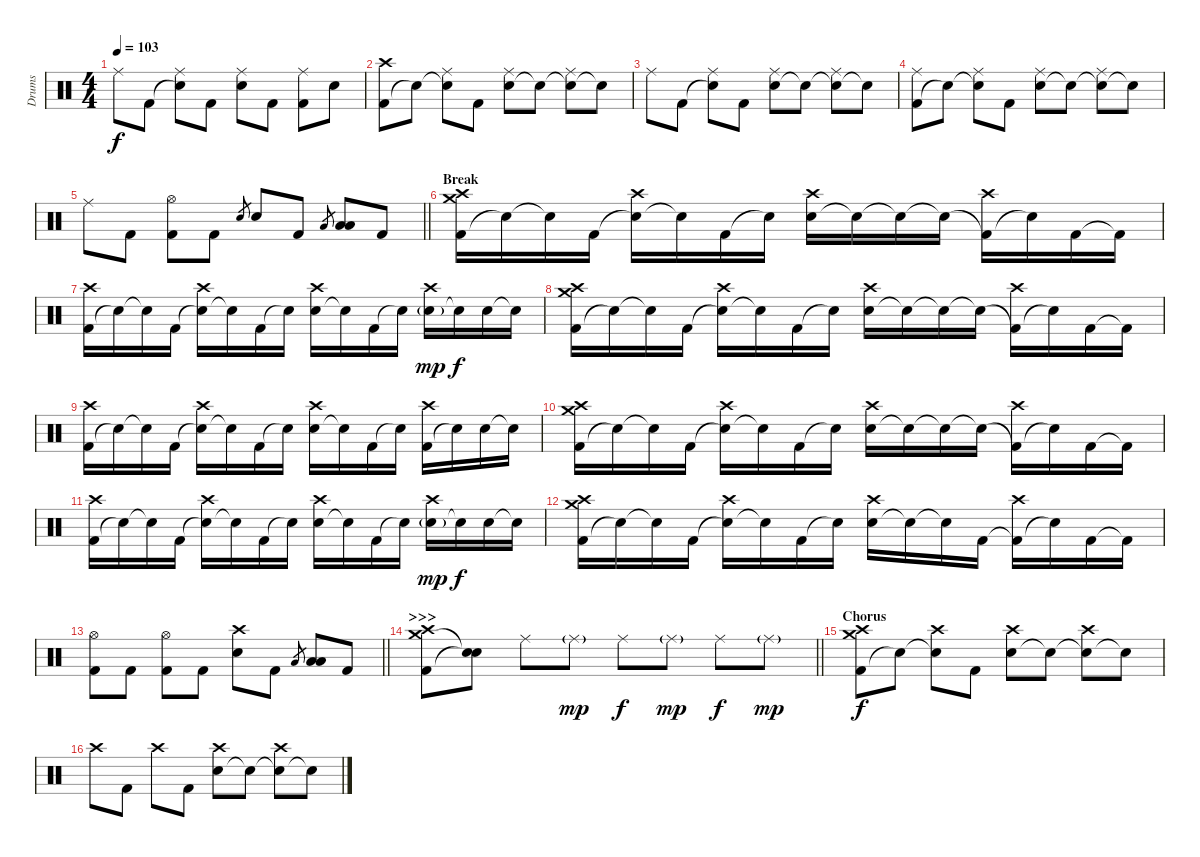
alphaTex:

\track ("Drums" "Drums") {instrument percussion}
\staff {score}
\articulation defaults
\ts (4 4)
\tempo 103
\clef neutral
\ks c "Ride (middle)".8{dy f} "Kick (hit) 2".8
("Snare (hit)"{t} "Ride (middle)").8 "Kick (hit) 2".8 ("Electric Snare (hit)" "Ride (middle)").8 "Kick (hit) 2".8 ("Kick (hit) 2" "Ride (middle)").8 "Electric Snare (hit)".8 |
("Kick (hit) 2" "Crash high (hit)").8 "Snare (hit)"{t}.8 ("Snare (hit)"{t} "Ride (middle)").8 "Kick (hit) 2".8 ("Electric Snare (hit)" "Ride (middle)").8 "Snare (hit)"{t}.8 ("Snare (hit)"{t} "Ride (middle)").8 "Snare (hit)"{t}.8 |
"Ride (middle)".8 "Kick (hit) 2".8 ("Snare (hit)"{t} "Ride (middle)").8 "Kick (hit) 2".8 ("Electric Snare (hit)" "Ride (middle)").8 "Snare (hit)"{t}.8 ("Snare (hit)"{t} "Ride (middle)").8 "Snare (hit)"{t}.8 |
("Kick (hit) 2" "Ride (middle)").8 "Snare (hit)"{t}.8 ("Snare (hit)"{t} "Ride (middle)").8 "Kick (hit) 2".8 ("Electric Snare (hit)" "Ride (middle)").8 "Snare (hit)"{t}.8 ("Snare (hit)"{t} "Ride (middle)").8 "Snare (hit)"{t}.8 |
\barLineRight lightlight "Ride (middle)".8 "Kick (hit) 2".8
("Kick (hit) 2" "Hi-Hat (open)").8 "Kick (hit) 2".8 "Electric Snare (hit)".8{gr} "Electric Snare (hit)".8 "Kick (hit) 2".8 "Low Tom (hit)".8{gr} ("Low Tom (hit)" "Low Floor Tom (hit)").8 "Kick (hit) 2".8 |
\section ("" "Break")
("Kick (hit) 2" "Crash medium (hit)" "Crash high (hit)").16 "Snare (hit)"{t}.16 "Snare (hit)"{t}.16 "Kick (hit) 2".16 ("Snare (hit)"{t} "Crash high (hit)").16 "Snare (hit)"{t}.16 "Kick (hit) 2".16 "Snare (hit)"{t}.16 ("Electric Snare (hit)" "Crash high (hit)").16 "Snare (hit)"{t}.16 "Snare (hit)"{t}.16 "Snare (hit)"{t}.16 ("Kick (hit) 2"{t} "Crash high (hit)").16 "Snare (hit)"{t}.16 "Kick (hit) 2".16 "Kick (hit) 2"{t}.16 |
("Kick (hit) 2" "Crash high (hit)").16 "Snare (hit)"{t}.16 "Snare (hit)"{t}.16 "Kick (hit) 2".16 ("Snare (hit)"{t} "Crash high (hit)").16 "Snare (hit)"{t}.16 "Kick (hit) 2".16 "Snare (hit)"{t}.16 ("Electric Snare (hit)" "Crash high (hit)").16 "Snare (hit)"{t}.16 "Kick (hit) 2".16 "Snare (hit)"{t}.16 ("Electric Snare (hit)"{g} "Crash high (hit)").16{dy mp} "Snare (hit)"{t}.16{dy f} "Electric Snare (hit)".16 "Snare (hit)"{t}.16 |
("Kick (hit) 2" "Crash medium (hit)" "Crash high (hit)").16 "Snare (hit)"{t}.16 "Snare (hit)"{t}.16 "Kick (hit) 2".16 ("Snare (hit)"{t} "Crash high (hit)").16 "Snare (hit)"{t}.16 "Kick (hit) 2".16 "Snare (hit)"{t}.16 ("Electric Snare (hit)" "Crash high (hit)").16 "Snare (hit)"{t}.16 "Snare (hit)"{t}.16 "Snare (hit)"{t}.16 ("Kick (hit) 2"{t} "Crash high (hit)").16 "Snare (hit)"{t}.16 "Kick (hit) 2".16 "Kick (hit) 2"{t}.16 |
("Kick (hit) 2" "Crash high (hit)").16 "Snare (hit)"{t}.16 "Snare (hit)"{t}.16 "Kick (hit) 2".16 ("Snare (hit)"{t} "Crash high (hit)").16 "Snare (hit)"{t}.16 "Kick (hit) 2".16 "Snare (hit)"{t}.16 ("Electric Snare (hit)" "Crash high (hit)").16 "Snare (hit)"{t}.16 "Kick (hit) 2".16 "Snare (hit)"{t}.16 ("Kick (hit) 2" "Crash high (hit)").16 "Snare (hit)"{t}.16 "Electric Snare (hit)".16 "Snare (hit)"{t}.16 |
("Kick (hit) 2" "Crash medium (hit)" "Crash high (hit)").16 "Snare (hit)"{t}.16 "Snare (hit)"{t}.16 "Kick (hit) 2".16 ("Snare (hit)"{t} "Crash high (hit)").16 "Snare (hit)"{t}.16 "Kick (hit) 2".16 "Snare (hit)"{t}.16 ("Electric Snare (hit)" "Crash high (hit)").16 "Snare (hit)"{t}.16 "Snare (hit)"{t}.16 "Snare (hit)"{t}.16 ("Kick (hit) 2"{t} "Crash high (hit)").16 "Snare (hit)"{t}.16 "Kick (hit) 2".16 "Kick (hit) 2"{t}.16 |
("Kick (hit) 2" "Crash high (hit)").16 "Snare (hit)"{t}.16 "Snare (hit)"{t}.16 "Kick (hit) 2".16 ("Snare (hit)"{t} "Crash high (hit)").16 "Snare (hit)"{t}.16 "Kick (hit) 2".16 "Snare (hit)"{t}.16 ("Electric Snare (hit)" "Crash high (hit)").16 "Snare (hit)"{t}.16 "Kick (hit) 2".16 "Snare (hit)"{t}.16 ("Electric Snare (hit)"{g} "Crash high (hit)").16{dy mp} "Snare (hit)"{t}.16{dy f} "Electric Snare (hit)".16 "Snare (hit)"{t}.16 |
("Kick (hit) 2" "Crash medium (hit)" "Crash high (hit)").16 "Snare (hit)"{t}.16 "Snare (hit)"{t}.16 "Kick (hit) 2".16 ("Snare (hit)"{t} "Crash high (hit)").16 "Snare (hit)"{t}.16 "Kick (hit) 2".16 "Snare (hit)"{t}.16 ("Electric Snare (hit)" "Crash high (hit)").16 "Snare (hit)"{t}.16 "Snare (hit)"{t}.16 "Kick (hit) 2".16 ("Kick (hit) 2"{t} "Crash high (hit)").16 "Snare (hit)"{t}.16 "Kick (hit) 2".16 "Kick (hit) 2"{t}.16 |
\barLineRight lightlight
("Kick (hit) 2" "Hi-Hat (open)").8 "Kick (hit) 2".8 ("Kick (hit) 2" "Hi-Hat (open)").8 "Kick (hit) 2".8 ("Electric Snare (hit)" "Crash high (hit)").8 "Kick (hit) 2".8 "Low Tom (hit)".8{gr} ("Low Tom (hit)" "Low Floor Tom (hit)").8 "Kick (hit) 2".8 |
\section ("" ">>>")
\barLineRight lightlight
("Kick (hit) 2" "Crash medium (hit)" "Crash high (hit)").8 ("Snare (hit)"{t} "Snare (hit)"{t}).8 "Ride (middle)".8 "Ride (middle)"{g}.8{dy mp} "Ride (middle)".8{dy f} "Ride (middle)"{g}.8{dy mp} "Ride (middle)".8{dy f} "Ride (middle)"{g}.8{dy mp} |
\section ("" "Chorus")
("Kick (hit) 2" "Crash medium (hit)" "Crash high (hit)").8{dy f} "Snare (hit)"{t}.8 ("Snare (hit)"{t} "Crash high (hit)").8 "Kick (hit) 2".8 ("Electric Snare (hit)" "Crash high (hit)").8 "Snare (hit)"{t}.8 ("Snare (hit)"{t} "Crash high (hit)").8 "Snare (hit)"{t}.8 |
"Crash high (hit)".8 "Kick (hit) 2".8 "Crash high (hit)".8 "Kick (hit) 2".8 ("Electric Snare (hit)" "Crash high (hit)").8 "Snare (hit)"{t}.8 ("Snare (hit)"{t} "Crash high (hit)").8 "Snare (hit)"{t}.8
